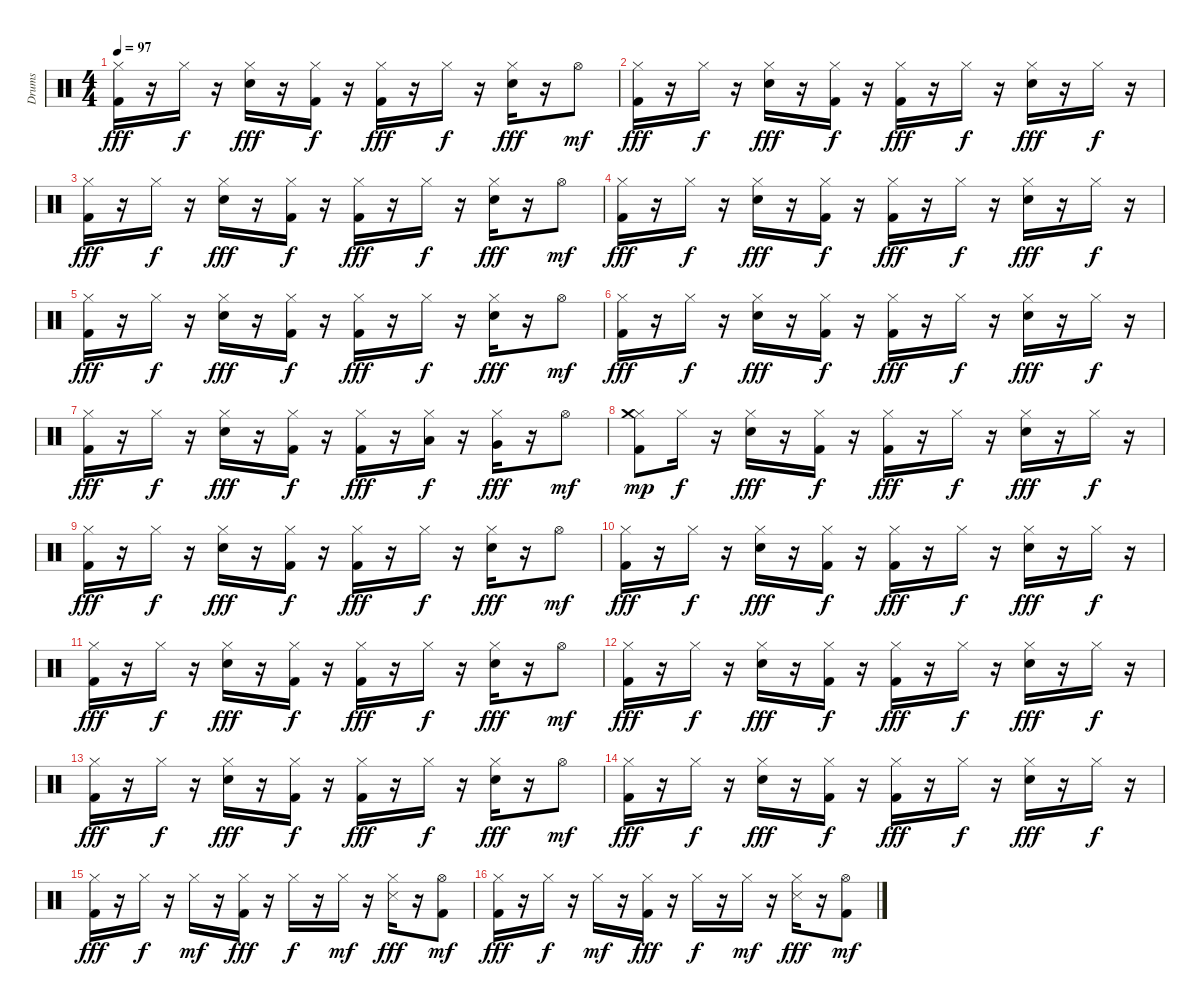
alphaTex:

\track ("Drums" "Drums") {instrument percussion}
\staff {score}
\articulation defaults
\ts (4 4)
\tempo 97
\clef neutral
\ks c
("Kick (hit) 2" "Hi-Hat (closed)").16{dy fff} r.16 "Hi-Hat (closed)".16{dy f} r.16 ("Electric Snare (hit)" "Hi-Hat (closed)").16{dy fff} r.16 ("Kick (hit) 2" "Hi-Hat (closed)").16{dy f} r.16 ("Kick (hit) 2" "Hi-Hat (closed)").16{dy fff} r.16 "Hi-Hat (closed)".16{dy f} r.16 ("Electric Snare (hit)" "Hi-Hat (closed)").16{dy fff} r.16 "Hi-Hat (open)".8{dy mf} |
("Kick (hit) 2" "Hi-Hat (closed)").16{dy fff} r.16 "Hi-Hat (closed)".16{dy f} r.16 ("Electric Snare (hit)" "Hi-Hat (closed)").16{dy fff} r.16 ("Kick (hit) 2" "Hi-Hat (closed)").16{dy f} r.16 ("Kick (hit) 2" "Hi-Hat (closed)").16{dy fff} r.16 "Hi-Hat (closed)".16{dy f} r.16 ("Electric Snare (hit)" "Hi-Hat (closed)").16{dy fff} r.16 "Hi-Hat (closed)".16{dy f} r.16 |
("Kick (hit) 2" "Hi-Hat (closed)").16{dy fff} r.16 "Hi-Hat (closed)".16{dy f} r.16 ("Electric Snare (hit)" "Hi-Hat (closed)").16{dy fff} r.16 ("Kick (hit) 2" "Hi-Hat (closed)").16{dy f} r.16 ("Kick (hit) 2" "Hi-Hat (closed)").16{dy fff} r.16 "Hi-Hat (closed)".16{dy f} r.16 ("Electric Snare (hit)" "Hi-Hat (closed)").16{dy fff} r.16 "Hi-Hat (open)".8{dy mf} |
("Kick (hit) 2" "Hi-Hat (closed)").16{dy fff} r.16 "Hi-Hat (closed)".16{dy f} r.16 ("Electric Snare (hit)" "Hi-Hat (closed)").16{dy fff} r.16 ("Kick (hit) 2" "Hi-Hat (closed)").16{dy f} r.16 ("Kick (hit) 2" "Hi-Hat (closed)").16{dy fff} r.16 "Hi-Hat (closed)".16{dy f} r.16 ("Electric Snare (hit)" "Hi-Hat (closed)").16{dy fff} r.16 "Hi-Hat (closed)".16{dy f} r.16 |
("Kick (hit) 2" "Hi-Hat (closed)").16{dy fff} r.16 "Hi-Hat (closed)".16{dy f} r.16 ("Electric Snare (hit)" "Hi-Hat (closed)").16{dy fff} r.16 ("Kick (hit) 2" "Hi-Hat (closed)").16{dy f} r.16 ("Kick (hit) 2" "Hi-Hat (closed)").16{dy fff} r.16 "Hi-Hat (closed)".16{dy f} r.16 ("Electric Snare (hit)" "Hi-Hat (closed)").16{dy fff} r.16 "Hi-Hat (open)".8{dy mf} |
("Kick (hit) 2" "Hi-Hat (closed)").16{dy fff} r.16 "Hi-Hat (closed)".16{dy f} r.16 ("Electric Snare (hit)" "Hi-Hat (closed)").16{dy fff} r.16 ("Kick (hit) 2" "Hi-Hat (closed)").16{dy f} r.16 ("Kick (hit) 2" "Hi-Hat (closed)").16{dy fff} r.16 "Hi-Hat (closed)".16{dy f} r.16 ("Electric Snare (hit)" "Hi-Hat (closed)").16{dy fff} r.16 "Hi-Hat (closed)".16{dy f} r.16 |
("Kick (hit) 2" "Hi-Hat (closed)").16{dy fff} r.16 "Hi-Hat (closed)".16{dy f} r.16 ("Electric Snare (hit)" "Hi-Hat (closed)").16{dy fff} r.16 ("Kick (hit) 2" "Hi-Hat (closed)").16{dy f} r.16 ("Kick (hit) 2" "Hi-Hat (closed)").16{dy fff} r.16 ("Hi-Hat (closed)" "Low Tom (hit)").16{dy f} r.16 ("Hi-Hat (closed)" "Very Low Tom (hit)").16{dy fff} r.16 "Hi-Hat (open)".8{dy mf} |
("Kick (hit) 2" "Hi-Hat (closed)" "Crash medium (hit)").8{dy mp} "Hi-Hat (closed)".16{dy f} r.16 ("Electric Snare (hit)" "Hi-Hat (closed)").16{dy fff} r.16 ("Kick (hit) 2" "Hi-Hat (closed)").16{dy f} r.16 ("Kick (hit) 2" "Hi-Hat (closed)").16{dy fff} r.16 "Hi-Hat (closed)".16{dy f} r.16 ("Electric Snare (hit)" "Hi-Hat (closed)").16{dy fff} r.16 "Hi-Hat (closed)".16{dy f} r.16 |
("Kick (hit) 2" "Hi-Hat (closed)").16{dy fff} r.16 "Hi-Hat (closed)".16{dy f} r.16 ("Electric Snare (hit)" "Hi-Hat (closed)").16{dy fff} r.16 ("Kick (hit) 2" "Hi-Hat (closed)").16{dy f} r.16 ("Kick (hit) 2" "Hi-Hat (closed)").16{dy fff} r.16 "Hi-Hat (closed)".16{dy f} r.16 ("Electric Snare (hit)" "Hi-Hat (closed)").16{dy fff} r.16 "Hi-Hat (open)".8{dy mf} |
("Kick (hit) 2" "Hi-Hat (closed)").16{dy fff} r.16 "Hi-Hat (closed)".16{dy f} r.16 ("Electric Snare (hit)" "Hi-Hat (closed)").16{dy fff} r.16 ("Kick (hit) 2" "Hi-Hat (closed)").16{dy f} r.16 ("Kick (hit) 2" "Hi-Hat (closed)").16{dy fff} r.16 "Hi-Hat (closed)".16{dy f} r.16 ("Electric Snare (hit)" "Hi-Hat (closed)").16{dy fff} r.16 "Hi-Hat (closed)".16{dy f} r.16 |
("Kick (hit) 2" "Hi-Hat (closed)").16{dy fff} r.16 "Hi-Hat (closed)".16{dy f} r.16 ("Electric Snare (hit)" "Hi-Hat (closed)").16{dy fff} r.16 ("Kick (hit) 2" "Hi-Hat (closed)").16{dy f} r.16 ("Kick (hit) 2" "Hi-Hat (closed)").16{dy fff} r.16 "Hi-Hat (closed)".16{dy f} r.16 ("Electric Snare (hit)" "Hi-Hat (closed)").16{dy fff} r.16 "Hi-Hat (open)".8{dy mf} |
("Kick (hit) 2" "Hi-Hat (closed)").16{dy fff} r.16 "Hi-Hat (closed)".16{dy f} r.16 ("Electric Snare (hit)" "Hi-Hat (closed)").16{dy fff} r.16 ("Kick (hit) 2" "Hi-Hat (closed)").16{dy f} r.16 ("Kick (hit) 2" "Hi-Hat (closed)").16{dy fff} r.16 "Hi-Hat (closed)".16{dy f} r.16 ("Electric Snare (hit)" "Hi-Hat (closed)").16{dy fff} r.16 "Hi-Hat (closed)".16{dy f} r.16 |
("Kick (hit) 2" "Hi-Hat (closed)").16{dy fff} r.16 "Hi-Hat (closed)".16{dy f} r.16 ("Electric Snare (hit)" "Hi-Hat (closed)").16{dy fff} r.16 ("Kick (hit) 2" "Hi-Hat (closed)").16{dy f} r.16 ("Kick (hit) 2" "Hi-Hat (closed)").16{dy fff} r.16 "Hi-Hat (closed)".16{dy f} r.16 ("Electric Snare (hit)" "Hi-Hat (closed)").16{dy fff} r.16 "Hi-Hat (open)".8{dy mf} |
("Kick (hit) 2" "Hi-Hat (closed)").16{dy fff} r.16 "Hi-Hat (closed)".16{dy f} r.16 ("Electric Snare (hit)" "Hi-Hat (closed)").16{dy fff} r.16 ("Kick (hit) 2" "Hi-Hat (closed)").16{dy f} r.16 ("Kick (hit) 2" "Hi-Hat (closed)").16{dy fff} r.16 "Hi-Hat (closed)".16{dy f} r.16 ("Electric Snare (hit)" "Hi-Hat (closed)").16{dy fff} r.16 "Hi-Hat (closed)".16{dy f} r.16 |
("Kick (hit) 2" "Hi-Hat (closed)").16{dy fff} r.16 "Hi-Hat (closed)".16{dy f} r.16 "Hi-Hat (closed)".16{dy mf} r.16 ("Kick (hit) 2" "Hi-Hat (closed)").16{dy fff} r.16 "Hi-Hat (closed)".16{dy f} r.16 "Hi-Hat (closed)".16{dy mf} r.16 ("Hi-Hat (closed)" "Snare (side stick) 3").16{dy fff} r.16 ("Kick (hit) 2" "Hi-Hat (open)").8{dy mf} |
("Kick (hit) 2" "Hi-Hat (closed)").16{dy fff} r.16 "Hi-Hat (closed)".16{dy f} r.16 "Hi-Hat (closed)".16{dy mf} r.16 ("Kick (hit) 2" "Hi-Hat (closed)").16{dy fff} r.16 "Hi-Hat (closed)".16{dy f} r.16 "Hi-Hat (closed)".16{dy mf} r.16 ("Hi-Hat (closed)" "Snare (side stick) 3").16{dy fff} r.16 ("Kick (hit) 2" "Hi-Hat (open)").8{dy mf}
